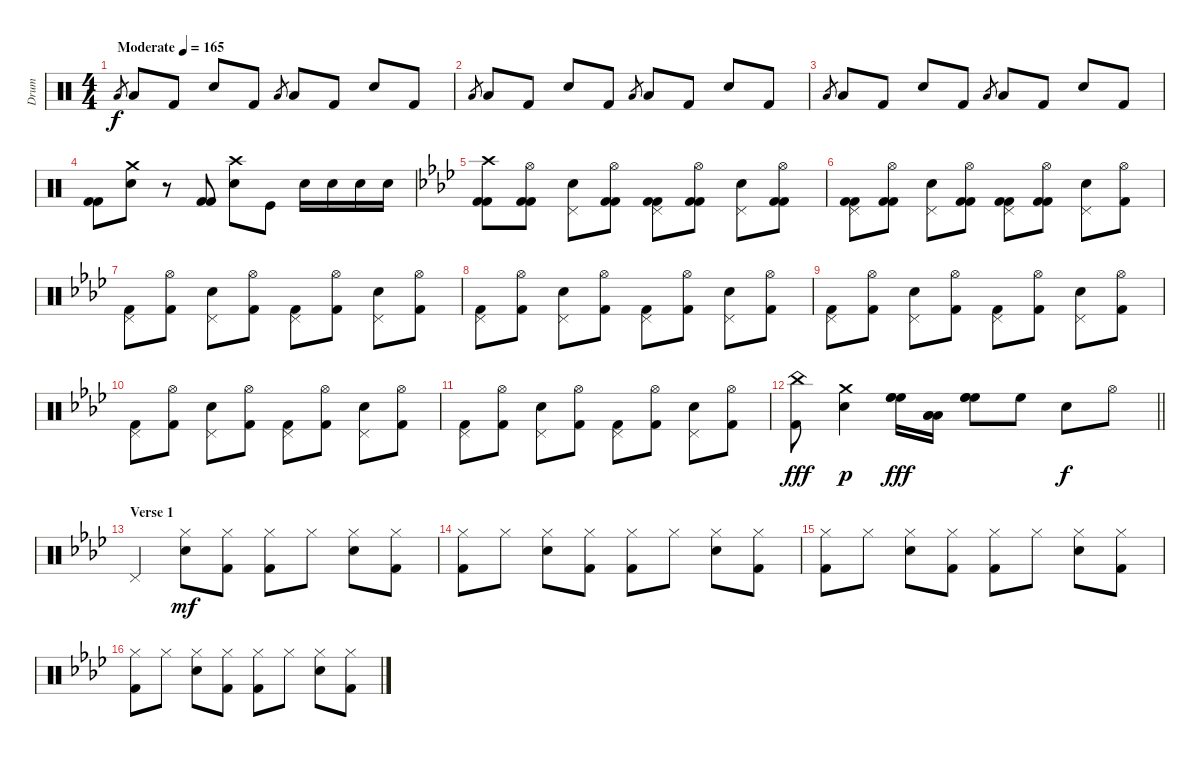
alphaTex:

\track ("Drum" "Drum") {instrument percussion}
\staff {score}
\articulation defaults
\ts (4 4)
\tempo (165 "Moderate")
\clef neutral
\ks c "Low Tom (hit)".8{gr dy f} "Low Floor Tom (hit)".8 "Kick (hit) 2".8 "Electric Snare (hit)".8 "Kick (hit) 2".8 "Low Tom (hit)".8{gr} "Low Floor Tom (hit)".8 "Kick (hit) 2".8 "Electric Snare (hit)".8 "Kick (hit) 2".8
|
"Low Tom (hit)".8{gr} "Low Floor Tom (hit)".8 "Kick (hit) 2".8 "Electric Snare (hit)".8 "Kick (hit) 2".8 "Low Tom (hit)".8{gr} "Low Floor Tom (hit)".8 "Kick (hit) 2".8 "Electric Snare (hit)".8 "Kick (hit) 2".8 |
"Low Tom (hit)".8{gr} "Low Floor Tom (hit)".8 "Kick (hit) 2".8 "Electric Snare (hit)".8 "Kick (hit) 2".8 "Low Tom (hit)".8{gr} "Low Floor Tom (hit)".8 "Kick (hit) 2".8 "Electric Snare (hit)".8 "Kick (hit) 2".8 |
("Kick (hit) 2" "Kick (hit) 2").8 ("Crash medium (hit)" "Electric Snare (hit)").8 r.8 ("Kick (hit) 2" "Kick (hit) 2").8 ("Crash high (hit)" "Electric Snare (hit)").8 "Kick (hit)".8 "Electric Snare (hit)".16 "Electric Snare (hit)".16 "Electric Snare (hit)".16 "Electric Snare (hit)".16 |
\ks ab
("Crash high (hit)" "Kick (hit) 2" "Kick (hit) 2").8 ("Hi-Hat (open)" "Kick (hit) 2" "Kick (hit) 2").8 ("Pedal Hi-Hat (hit)" "Electric Snare (hit)").8 ("Hi-Hat (open)" "Kick (hit) 2" "Kick (hit) 2").8 ("Pedal Hi-Hat (hit)" "Kick (hit) 2" "Kick (hit) 2").8 ("Hi-Hat (open)" "Kick (hit) 2" "Kick (hit) 2").8 ("Pedal Hi-Hat (hit)" "Electric Snare (hit)").8 ("Hi-Hat (open)" "Kick (hit) 2" "Kick (hit) 2").8 |
("Pedal Hi-Hat (hit)" "Kick (hit) 2" "Kick (hit) 2").8 ("Hi-Hat (open)" "Kick (hit) 2" "Kick (hit) 2").8 ("Pedal Hi-Hat (hit)" "Electric Snare (hit)").8 ("Hi-Hat (open)" "Kick (hit) 2" "Kick (hit) 2").8 ("Pedal Hi-Hat (hit)" "Kick (hit) 2" "Kick (hit) 2").8 ("Hi-Hat (open)" "Kick (hit) 2" "Kick (hit) 2").8 ("Pedal Hi-Hat (hit)" "Electric Snare (hit)").8 ("Hi-Hat (open)" "Kick (hit) 2").8 |
("Pedal Hi-Hat (hit)" "Kick (hit) 2").8 ("Hi-Hat (open)" "Kick (hit) 2").8 ("Pedal Hi-Hat (hit)" "Electric Snare (hit)").8 ("Hi-Hat (open)" "Kick (hit) 2").8 ("Pedal Hi-Hat (hit)" "Kick (hit) 2").8 ("Hi-Hat (open)" "Kick (hit) 2").8 ("Pedal Hi-Hat (hit)" "Electric Snare (hit)").8 ("Hi-Hat (open)" "Kick (hit) 2").8 |
("Pedal Hi-Hat (hit)" "Kick (hit) 2").8 ("Hi-Hat (open)" "Kick (hit) 2").8 ("Pedal Hi-Hat (hit)" "Electric Snare (hit)").8 ("Hi-Hat (open)" "Kick (hit) 2").8 ("Pedal Hi-Hat (hit)" "Kick (hit) 2").8 ("Hi-Hat (open)" "Kick (hit) 2").8 ("Pedal Hi-Hat (hit)" "Electric Snare (hit)").8 ("Hi-Hat (open)" "Kick (hit) 2").8 |
("Pedal Hi-Hat (hit)" "Kick (hit) 2").8 ("Hi-Hat (open)" "Kick (hit) 2").8 ("Pedal Hi-Hat (hit)" "Electric Snare (hit)").8 ("Hi-Hat (open)" "Kick (hit) 2").8 ("Pedal Hi-Hat (hit)" "Kick (hit) 2").8 ("Hi-Hat (open)" "Kick (hit) 2").8 ("Pedal Hi-Hat (hit)" "Electric Snare (hit)").8 ("Hi-Hat (open)" "Kick (hit) 2").8 |
("Pedal Hi-Hat (hit)" "Kick (hit) 2").8 ("Hi-Hat (open)" "Kick (hit) 2").8 ("Pedal Hi-Hat (hit)" "Electric Snare (hit)").8 ("Hi-Hat (open)" "Kick (hit) 2").8 ("Pedal Hi-Hat (hit)" "Kick (hit) 2").8 ("Hi-Hat (open)" "Kick (hit) 2").8 ("Pedal Hi-Hat (hit)" "Electric Snare (hit)").8 ("Hi-Hat (open)" "Kick (hit) 2").8 |
("Pedal Hi-Hat (hit)" "Kick (hit) 2").8 ("Hi-Hat (open)" "Kick (hit) 2").8 ("Pedal Hi-Hat (hit)" "Electric Snare (hit)").8 ("Hi-Hat (open)" "Kick (hit) 2").8 ("Pedal Hi-Hat (hit)" "Kick (hit) 2").8 ("Hi-Hat (open)" "Kick (hit) 2").8 ("Pedal Hi-Hat (hit)" "Electric Snare (hit)").8 ("Hi-Hat (open)" "Kick (hit) 2").8 |
\barLineRight lightlight
("China (hit)" "Kick (hit) 2").8{dy fff} ("Crash medium (hit)" "Electric Snare (hit)").4{dy p} ("High Floor Tom (hit)" "High Floor Tom (hit)" "High Floor Tom (hit)").16{dy fff} ("Low Tom (hit)" "Low Tom (hit)" "Low Tom (hit)").16 ("High Floor Tom (hit)" "High Floor Tom (hit)" "High Floor Tom (hit)").8 "High Floor Tom (hit)".8 "Electric Snare (hit)".8{dy f} "Hi-Hat (open)".8 |
\section ("" "Verse 1")
"Pedal Hi-Hat (hit)".4 ("Hi-Hat (closed)" "Electric Snare (hit)").8{dy mf} ("Hi-Hat (closed)" "Kick (hit) 2").8 ("Hi-Hat (closed)" "Kick (hit) 2").8 "Hi-Hat (closed)".8 ("Hi-Hat (closed)" "Electric Snare (hit)").8 ("Hi-Hat (closed)" "Kick (hit) 2").8 |
("Hi-Hat (closed)" "Kick (hit) 2").8 "Hi-Hat (closed)".8 ("Hi-Hat (closed)" "Electric Snare (hit)").8 ("Hi-Hat (closed)" "Kick (hit) 2").8 ("Hi-Hat (closed)" "Kick (hit) 2").8 "Hi-Hat (closed)".8 ("Hi-Hat (closed)" "Electric Snare (hit)").8 ("Hi-Hat (closed)" "Kick (hit) 2").8 |
("Hi-Hat (closed)" "Kick (hit) 2").8 "Hi-Hat (closed)".8 ("Hi-Hat (closed)" "Electric Snare (hit)").8 ("Hi-Hat (closed)" "Kick (hit) 2").8 ("Hi-Hat (closed)" "Kick (hit) 2").8 "Hi-Hat (closed)".8 ("Hi-Hat (closed)" "Electric Snare (hit)").8 ("Hi-Hat (closed)" "Kick (hit) 2").8 |
("Hi-Hat (closed)" "Kick (hit) 2").8 "Hi-Hat (closed)".8 ("Hi-Hat (closed)" "Electric Snare (hit)").8 ("Hi-Hat (closed)" "Kick (hit) 2").8 ("Hi-Hat (closed)" "Kick (hit) 2").8 "Hi-Hat (closed)".8 ("Hi-Hat (closed)" "Electric Snare (hit)").8 ("Hi-Hat (closed)" "Kick (hit) 2").8
